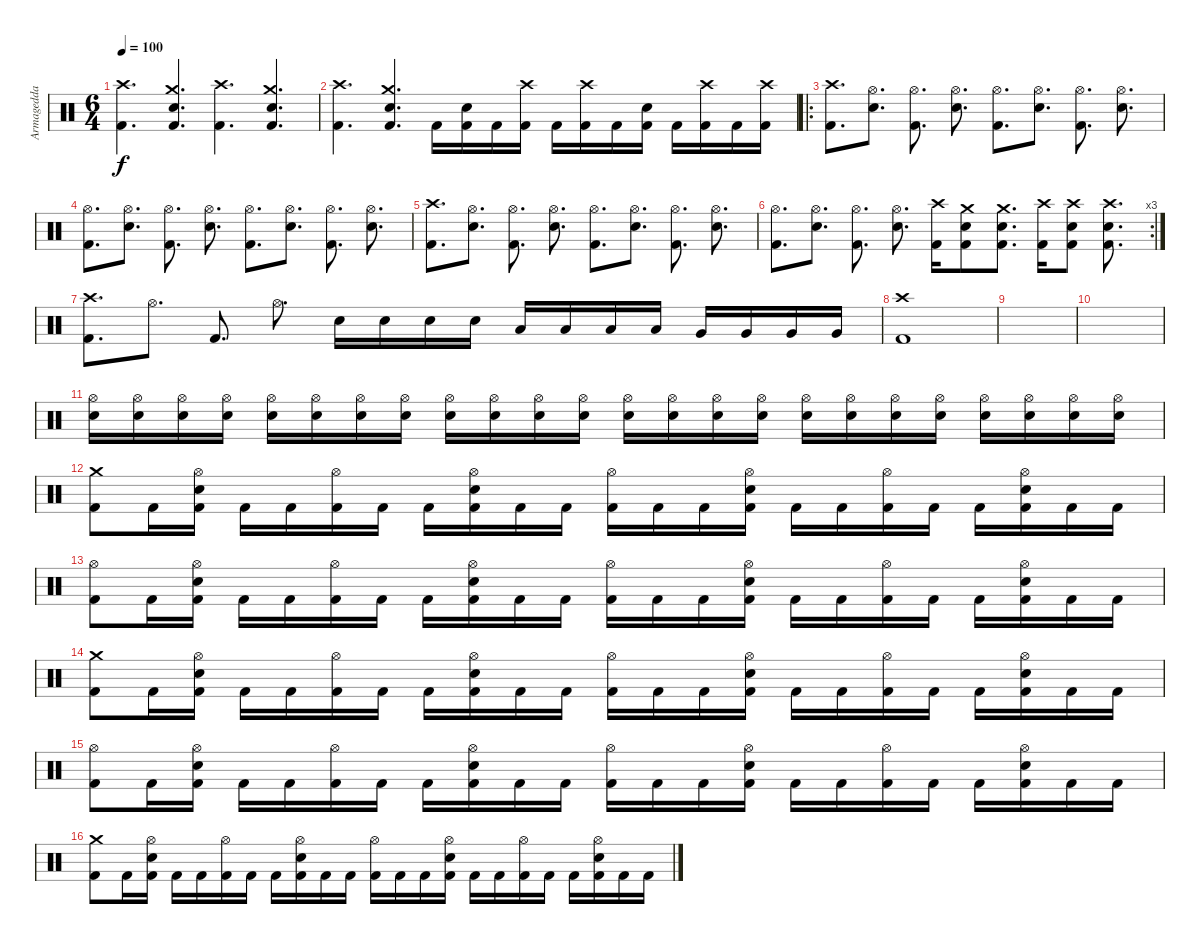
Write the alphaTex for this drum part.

\track ("Armagedda" "Armagedda") {instrument percussion}
\staff {score}
\articulation defaults
\ts (6 4)
\tempo 100
\clef neutral
\ks c
("Crash high (hit)" "Kick (hit) 2").4{d dy f} ("Crash medium (hit)" "Snare (hit) 2" "Kick (hit) 2").4{d} ("Crash high (hit)" "Kick (hit) 2").4{d} ("Crash medium (hit)" "Snare (hit) 2" "Kick (hit) 2").4{d} |
("Crash high (hit)" "Kick (hit) 2").4{d} ("Crash medium (hit)" "Snare (hit) 2" "Kick (hit) 2").4{d} "Kick (hit) 2".16 ("Snare (hit) 2" "Kick (hit) 2").16 "Kick (hit) 2".16 ("Crash high (hit)" "Kick (hit) 2").16 "Kick (hit) 2".16 ("Crash high (hit)" "Kick (hit) 2").16 "Kick (hit) 2".16 ("Snare (hit) 2" "Kick (hit) 2").16 "Kick (hit) 2".16 ("Crash high (hit)" "Kick (hit) 2").16 "Kick (hit) 2".16 ("Crash high (hit)" "Kick (hit) 2").16 |
\ro
("Crash high (hit)" "Kick (hit) 2").8{d} ("Hi-Hat (open)" "Snare (hit) 2").8{d} ("Hi-Hat (open)" "Kick (hit) 2").8{d} ("Hi-Hat (open)" "Snare (hit) 2").8{d} ("Hi-Hat (open)" "Kick (hit) 2").8{d} ("Hi-Hat (open)" "Snare (hit) 2").8{d} ("Hi-Hat (open)" "Kick (hit) 2").8{d} ("Hi-Hat (open)" "Snare (hit) 2").8{d} |
("Hi-Hat (open)" "Kick (hit) 2").8{d} ("Hi-Hat (open)" "Snare (hit) 2").8{d} ("Hi-Hat (open)" "Kick (hit) 2").8{d} ("Hi-Hat (open)" "Snare (hit) 2").8{d} ("Hi-Hat (open)" "Kick (hit) 2").8{d} ("Hi-Hat (open)" "Snare (hit) 2").8{d} ("Hi-Hat (open)" "Kick (hit) 2").8{d} ("Hi-Hat (open)" "Snare (hit) 2").8{d} |
("Crash high (hit)" "Kick (hit) 2").8{d} ("Hi-Hat (open)" "Snare (hit) 2").8{d} ("Hi-Hat (open)" "Kick (hit) 2").8{d} ("Hi-Hat (open)" "Snare (hit) 2").8{d} ("Hi-Hat (open)" "Kick (hit) 2").8{d} ("Hi-Hat (open)" "Snare (hit) 2").8{d} ("Hi-Hat (open)" "Kick (hit) 2").8{d} ("Hi-Hat (open)" "Snare (hit) 2").8{d} |
\rc 3
("Hi-Hat (open)" "Kick (hit) 2").8{d} ("Hi-Hat (open)" "Snare (hit) 2").8{d} ("Hi-Hat (open)" "Kick (hit) 2").8{d} ("Hi-Hat (open)" "Snare (hit) 2").8{d} ("Crash high (hit)" "Kick (hit) 2").16 ("Crash medium (hit)" "Snare (hit) 2" "Kick (hit) 2").8 ("Crash medium (hit)" "Snare (hit) 2" "Kick (hit) 2").8{d} ("Crash high (hit)" "Kick (hit) 2").16 ("Crash high (hit)" "Snare (hit) 2" "Kick (hit) 2").8 ("Crash high (hit)" "Snare (hit) 2" "Kick (hit) 2").8{d} |
("Crash high (hit)" "Kick (hit) 2").8{d} "Hi-Hat (open)".8{d} "Kick (hit) 2".8{d} "Hi-Hat (open)".8{d} "Snare (hit) 2".16 "Snare (hit) 2".16 "Snare (hit) 2".16 "Snare (hit) 2".16 "Low Tom (hit)".16 "Low Tom (hit)".16 "Low Tom (hit)".16 "Low Tom (hit)".16 "Very Low Tom (hit)".16 "Very Low Tom (hit)".16 "Very Low Tom (hit)".16 "Very Low Tom (hit)".16 |
("Crash high (hit)" "Kick (hit) 2").1 |
|
|
("Hi-Hat (open)" "Snare (hit)").16{volume 0} ("Hi-Hat (open)" "Snare (hit)").16{volume 14} ("Hi-Hat (open)" "Snare (hit)").16 ("Hi-Hat (open)" "Snare (hit)").16 ("Hi-Hat (open)" "Snare (hit)").16 ("Hi-Hat (open)" "Snare (hit)").16 ("Hi-Hat (open)" "Snare (hit)").16 ("Hi-Hat (open)" "Snare (hit)").16 ("Hi-Hat (open)" "Snare (hit)").16 ("Hi-Hat (open)" "Snare (hit)").16 ("Hi-Hat (open)" "Snare (hit)").16 ("Hi-Hat (open)" "Snare (hit)").16 ("Hi-Hat (open)" "Snare (hit)").16 ("Hi-Hat (open)" "Snare (hit)").16 ("Hi-Hat (open)" "Snare (hit)").16 ("Hi-Hat (open)" "Snare (hit)").16 ("Hi-Hat (open)" "Snare (hit)").16 ("Hi-Hat (open)" "Snare (hit)").16 ("Hi-Hat (open)" "Snare (hit)").16 ("Hi-Hat (open)" "Snare (hit)").16 ("Hi-Hat (open)" "Snare (hit)").16 ("Hi-Hat (open)" "Snare (hit)").16 ("Hi-Hat (open)" "Snare (hit)").16 ("Hi-Hat (open)" "Snare (hit)").16 |
("Crash medium (hit)" "Kick (hit) 2").8 "Kick (hit) 2".16 ("Hi-Hat (open)" "Snare (hit) 2" "Kick (hit) 2").16 "Kick (hit) 2".16 "Kick (hit) 2".16 ("Hi-Hat (open)" "Kick (hit) 2").16 "Kick (hit) 2".16 "Kick (hit) 2".16 ("Hi-Hat (open)" "Snare (hit) 2" "Kick (hit) 2").16 "Kick (hit) 2".16 "Kick (hit) 2".16 ("Hi-Hat (open)" "Kick (hit) 2").16 "Kick (hit) 2".16 "Kick (hit) 2".16 ("Hi-Hat (open)" "Snare (hit) 2" "Kick (hit) 2").16 "Kick (hit) 2".16 "Kick (hit) 2".16 ("Hi-Hat (open)" "Kick (hit) 2").16 "Kick (hit) 2".16 "Kick (hit) 2".16 ("Hi-Hat (open)" "Snare (hit) 2" "Kick (hit) 2").16 "Kick (hit) 2".16 "Kick (hit) 2".16 |
("Hi-Hat (open)" "Kick (hit) 2").8 "Kick (hit) 2".16 ("Hi-Hat (open)" "Snare (hit) 2" "Kick (hit) 2").16 "Kick (hit) 2".16 "Kick (hit) 2".16 ("Hi-Hat (open)" "Kick (hit) 2").16 "Kick (hit) 2".16 "Kick (hit) 2".16 ("Hi-Hat (open)" "Snare (hit) 2" "Kick (hit) 2").16 "Kick (hit) 2".16 "Kick (hit) 2".16 ("Hi-Hat (open)" "Kick (hit) 2").16 "Kick (hit) 2".16 "Kick (hit) 2".16 ("Hi-Hat (open)" "Snare (hit) 2" "Kick (hit) 2").16 "Kick (hit) 2".16 "Kick (hit) 2".16 ("Hi-Hat (open)" "Kick (hit) 2").16 "Kick (hit) 2".16 "Kick (hit) 2".16 ("Hi-Hat (open)" "Snare (hit) 2" "Kick (hit) 2").16 "Kick (hit) 2".16 "Kick (hit) 2".16 |
("Crash medium (hit)" "Kick (hit) 2").8 "Kick (hit) 2".16 ("Hi-Hat (open)" "Snare (hit) 2" "Kick (hit) 2").16 "Kick (hit) 2".16 "Kick (hit) 2".16 ("Hi-Hat (open)" "Kick (hit) 2").16 "Kick (hit) 2".16 "Kick (hit) 2".16 ("Hi-Hat (open)" "Snare (hit) 2" "Kick (hit) 2").16 "Kick (hit) 2".16 "Kick (hit) 2".16 ("Hi-Hat (open)" "Kick (hit) 2").16 "Kick (hit) 2".16 "Kick (hit) 2".16 ("Hi-Hat (open)" "Snare (hit) 2" "Kick (hit) 2").16 "Kick (hit) 2".16 "Kick (hit) 2".16 ("Hi-Hat (open)" "Kick (hit) 2").16 "Kick (hit) 2".16 "Kick (hit) 2".16 ("Hi-Hat (open)" "Snare (hit) 2" "Kick (hit) 2").16 "Kick (hit) 2".16 "Kick (hit) 2".16 |
("Hi-Hat (open)" "Kick (hit) 2").8 "Kick (hit) 2".16 ("Hi-Hat (open)" "Snare (hit) 2" "Kick (hit) 2").16 "Kick (hit) 2".16 "Kick (hit) 2".16 ("Hi-Hat (open)" "Kick (hit) 2").16 "Kick (hit) 2".16 "Kick (hit) 2".16 ("Hi-Hat (open)" "Snare (hit) 2" "Kick (hit) 2").16 "Kick (hit) 2".16 "Kick (hit) 2".16 ("Hi-Hat (open)" "Kick (hit) 2").16 "Kick (hit) 2".16 "Kick (hit) 2".16 ("Hi-Hat (open)" "Snare (hit) 2" "Kick (hit) 2").16 "Kick (hit) 2".16 "Kick (hit) 2".16 ("Hi-Hat (open)" "Kick (hit) 2").16 "Kick (hit) 2".16 "Kick (hit) 2".16 ("Hi-Hat (open)" "Snare (hit) 2" "Kick (hit) 2").16 "Kick (hit) 2".16 "Kick (hit) 2".16 |
("Crash medium (hit)" "Kick (hit) 2").8 "Kick (hit) 2".16 ("Hi-Hat (open)" "Snare (hit) 2" "Kick (hit) 2").16 "Kick (hit) 2".16 "Kick (hit) 2".16 ("Hi-Hat (open)" "Kick (hit) 2").16 "Kick (hit) 2".16 "Kick (hit) 2".16 ("Hi-Hat (open)" "Snare (hit) 2" "Kick (hit) 2").16 "Kick (hit) 2".16 "Kick (hit) 2".16 ("Hi-Hat (open)" "Kick (hit) 2").16 "Kick (hit) 2".16 "Kick (hit) 2".16 ("Hi-Hat (open)" "Snare (hit) 2" "Kick (hit) 2").16 "Kick (hit) 2".16 "Kick (hit) 2".16 ("Hi-Hat (open)" "Kick (hit) 2").16 "Kick (hit) 2".16 "Kick (hit) 2".16 ("Hi-Hat (open)" "Snare (hit) 2" "Kick (hit) 2").16 "Kick (hit) 2".16 "Kick (hit) 2".16
